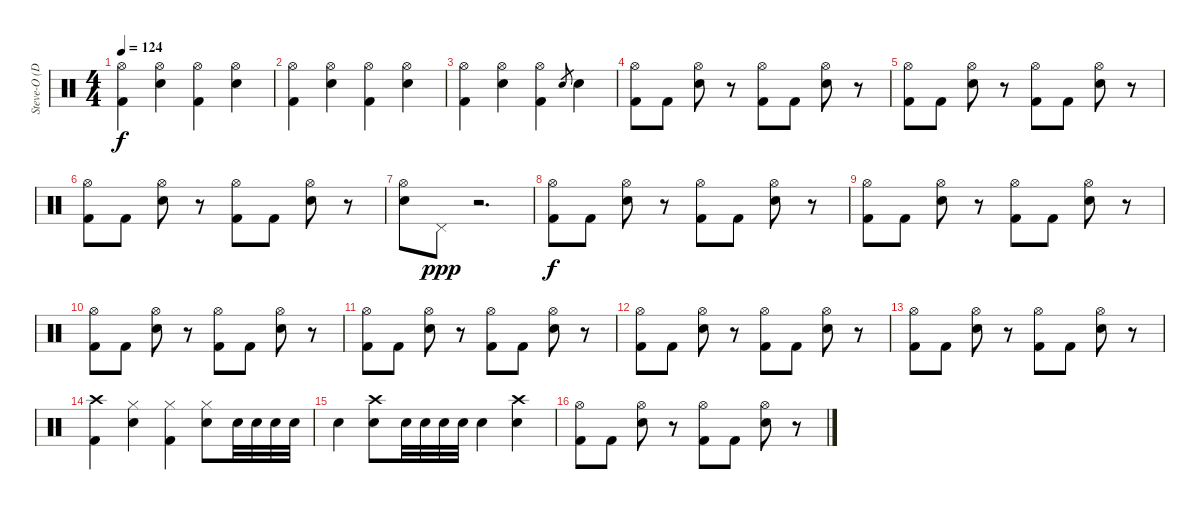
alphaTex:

\track ("Steve-O (Drums)" "Steve-O (D") {instrument percussion}
\staff {score}
\articulation defaults
\ts (4 4)
\tempo 124
\clef neutral
\ks c
("Hi-Hat (open)" "Kick (hit) 2").4{dy f} ("Hi-Hat (open)" "Electric Snare (hit)").4 ("Hi-Hat (open)" "Kick (hit) 2").4 ("Hi-Hat (open)" "Electric Snare (hit)").4 |
("Hi-Hat (open)" "Kick (hit) 2").4 ("Hi-Hat (open)" "Electric Snare (hit)").4 ("Hi-Hat (open)" "Kick (hit) 2").4 ("Hi-Hat (open)" "Electric Snare (hit)").4 |
("Hi-Hat (open)" "Kick (hit) 2").4 ("Hi-Hat (open)" "Electric Snare (hit)").4 ("Hi-Hat (open)" "Kick (hit) 2").4 "Electric Snare (hit)".8{gr} "Electric Snare (hit)".4 |
("Hi-Hat (open)" "Kick (hit) 2").8 "Kick (hit) 2".8 ("Hi-Hat (open)" "Electric Snare (hit)").8 r.8 ("Hi-Hat (open)" "Kick (hit) 2").8 "Kick (hit) 2".8 ("Hi-Hat (open)" "Electric Snare (hit)").8 r.8 |
("Hi-Hat (open)" "Kick (hit) 2").8 "Kick (hit) 2".8 ("Hi-Hat (open)" "Electric Snare (hit)").8 r.8 ("Hi-Hat (open)" "Kick (hit) 2").8 "Kick (hit) 2".8 ("Hi-Hat (open)" "Electric Snare (hit)").8 r.8 |
("Hi-Hat (open)" "Kick (hit) 2").8 "Kick (hit) 2".8 ("Hi-Hat (open)" "Electric Snare (hit)").8 r.8 ("Hi-Hat (open)" "Kick (hit) 2").8 "Kick (hit) 2".8 ("Hi-Hat (open)" "Electric Snare (hit)").8 r.8 |
("Hi-Hat (open)" "Electric Snare (hit)").8 "Pedal Hi-Hat (hit)".8{dy ppp} r.2{d} |
("Hi-Hat (open)" "Kick (hit) 2").8{dy f} "Kick (hit) 2".8 ("Hi-Hat (open)" "Electric Snare (hit)").8 r.8 ("Hi-Hat (open)" "Kick (hit) 2").8 "Kick (hit) 2".8 ("Hi-Hat (open)" "Electric Snare (hit)").8 r.8 |
("Hi-Hat (open)" "Kick (hit) 2").8 "Kick (hit) 2".8 ("Hi-Hat (open)" "Electric Snare (hit)").8 r.8 ("Hi-Hat (open)" "Kick (hit) 2").8 "Kick (hit) 2".8 ("Hi-Hat (open)" "Electric Snare (hit)").8 r.8 |
("Hi-Hat (open)" "Kick (hit) 2").8 "Kick (hit) 2".8 ("Hi-Hat (open)" "Electric Snare (hit)").8 r.8 ("Hi-Hat (open)" "Kick (hit) 2").8 "Kick (hit) 2".8 ("Hi-Hat (open)" "Electric Snare (hit)").8 r.8 |
("Hi-Hat (open)" "Kick (hit) 2").8 "Kick (hit) 2".8 ("Hi-Hat (open)" "Electric Snare (hit)").8 r.8 ("Hi-Hat (open)" "Kick (hit) 2").8 "Kick (hit) 2".8 ("Hi-Hat (open)" "Electric Snare (hit)").8 r.8 |
("Hi-Hat (open)" "Kick (hit) 2").8 "Kick (hit) 2".8 ("Hi-Hat (open)" "Electric Snare (hit)").8 r.8 ("Hi-Hat (open)" "Kick (hit) 2").8 "Kick (hit) 2".8 ("Hi-Hat (open)" "Electric Snare (hit)").8 r.8 |
("Hi-Hat (open)" "Kick (hit) 2").8 "Kick (hit) 2".8 ("Hi-Hat (open)" "Electric Snare (hit)").8 r.8 ("Hi-Hat (open)" "Kick (hit) 2").8 "Kick (hit) 2".8 ("Hi-Hat (open)" "Electric Snare (hit)").8 r.8 |
("Crash high (hit)" "Kick (hit) 2").4 ("Hi-Hat (closed)" "Snare (hit) 2").4 ("Hi-Hat (closed)" "Kick (hit) 2").4 ("Hi-Hat (closed)" "Snare (hit) 2").8 "Snare (hit) 2".32 "Snare (hit) 2".32 "Snare (hit) 2".32 "Snare (hit) 2".32 |
"Snare (hit) 2".4 ("Crash high (hit)" "Snare (hit) 2").8 "Snare (hit) 2".32 "Snare (hit) 2".32 "Snare (hit) 2".32 "Snare (hit) 2".32 "Snare (hit) 2".4 ("Crash high (hit)" "Snare (hit) 2").4 |
("Hi-Hat (open)" "Kick (hit) 2").8 "Kick (hit) 2".8 ("Hi-Hat (open)" "Electric Snare (hit)").8 r.8 ("Hi-Hat (open)" "Kick (hit) 2").8 "Kick (hit) 2".8 ("Hi-Hat (open)" "Electric Snare (hit)").8 r.8
